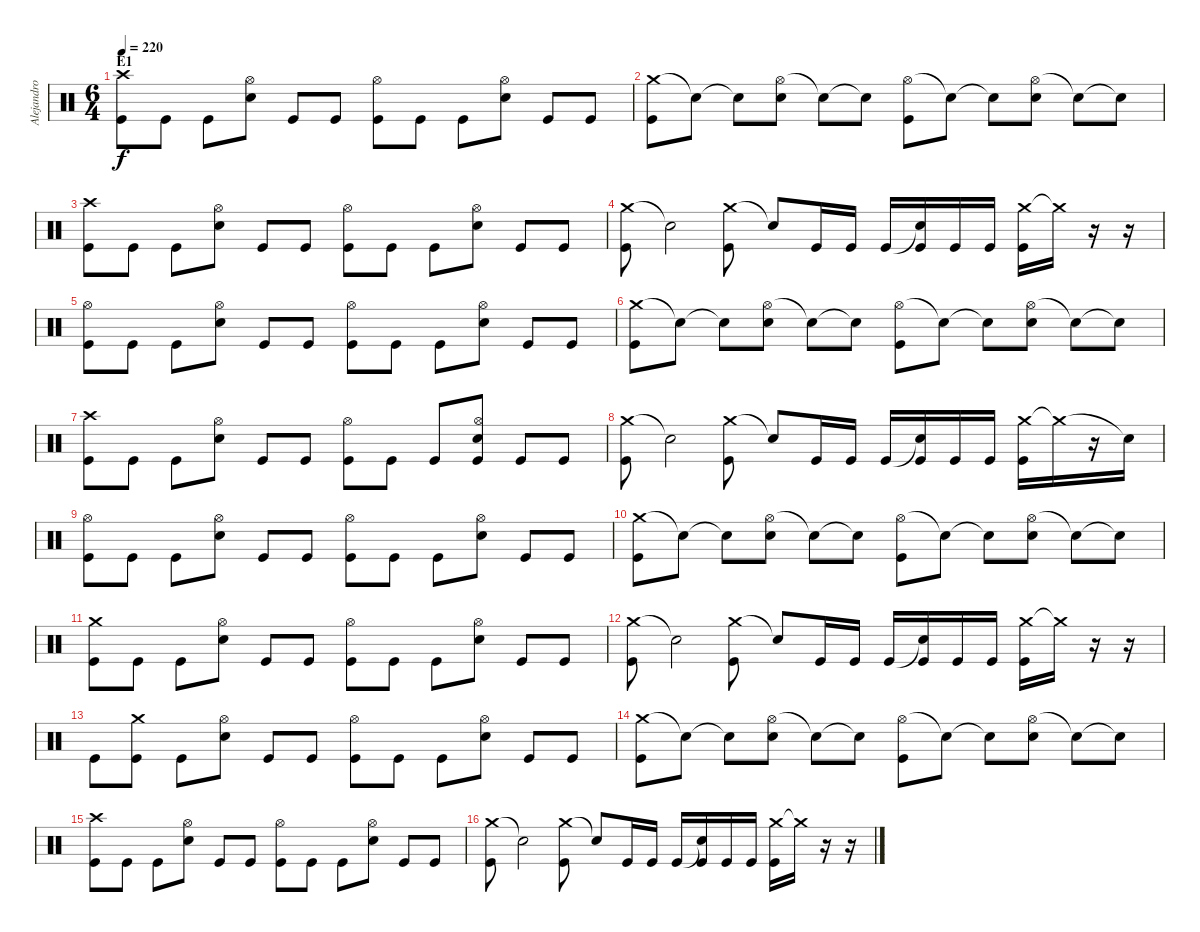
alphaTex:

\track ("Alejandro M. (Bateria)" "Alejandro ") {instrument percussion}
\staff {score}
\articulation defaults
\ts (6 4)
\section ("" "E1")
\tempo 220
\clef neutral
\ks c
("Crash high (hit)" "Kick (hit)").8{dy f} "Kick (hit)".8 "Kick (hit)".8 ("Hi-Hat (open)" "Snare (hit) 2").8 "Kick (hit)".8 "Kick (hit)".8 ("Hi-Hat (open)" "Kick (hit)").8 "Kick (hit)".8 "Kick (hit)".8 ("Hi-Hat (open)" "Snare (hit) 2").8 "Kick (hit)".8 "Kick (hit)".8 |
("Crash medium (hit)" "Kick (hit)").8 "Snare (hit)"{t}.8 "Snare (hit)"{t}.8 ("Hi-Hat (open)" "Snare (hit) 2").8 "Snare (hit)"{t}.8 "Snare (hit)"{t}.8 ("Hi-Hat (open)" "Kick (hit)").8 "Snare (hit)"{t}.8 "Snare (hit)"{t}.8 ("Hi-Hat (open)" "Snare (hit) 2").8 "Snare (hit)"{t}.8 "Snare (hit)"{t}.8 |
("Crash high (hit)" "Kick (hit)").8 "Kick (hit)".8 "Kick (hit)".8 ("Hi-Hat (open)" "Snare (hit) 2").8 "Kick (hit)".8 "Kick (hit)".8 ("Hi-Hat (open)" "Kick (hit)").8 "Kick (hit)".8 "Kick (hit)".8 ("Hi-Hat (open)" "Snare (hit) 2").8 "Kick (hit)".8 "Kick (hit)".8 |
("Crash medium (hit)" "Kick (hit)").8 "Snare (hit)"{t}.2 ("Crash medium (hit)" "Kick (hit)").8 "Snare (hit)"{t}.8 "Kick (hit)".16 "Kick (hit)".16 "Kick (hit)".16 ("Snare (hit)"{t} "Kick (hit)").16 "Kick (hit)".16 "Kick (hit)".16 ("Crash medium (hit)" "Kick (hit)").16 "Crash medium (hit)"{t}.16 r.16 r.16 |
("Hi-Hat (open)" "Kick (hit)").8 "Kick (hit)".8 "Kick (hit)".8 ("Hi-Hat (open)" "Snare (hit) 2").8 "Kick (hit)".8 "Kick (hit)".8 ("Hi-Hat (open)" "Kick (hit)").8 "Kick (hit)".8 "Kick (hit)".8 ("Hi-Hat (open)" "Snare (hit) 2").8 "Kick (hit)".8 "Kick (hit)".8 |
("Crash medium (hit)" "Kick (hit)").8 "Snare (hit)"{t}.8 "Snare (hit)"{t}.8 ("Hi-Hat (open)" "Snare (hit) 2").8 "Snare (hit)"{t}.8 "Snare (hit)"{t}.8 ("Hi-Hat (open)" "Kick (hit)").8 "Snare (hit)"{t}.8 "Snare (hit)"{t}.8 ("Hi-Hat (open)" "Snare (hit) 2").8 "Snare (hit)"{t}.8 "Snare (hit)"{t}.8 |
("Crash high (hit)" "Kick (hit)").8 "Kick (hit)".8 "Kick (hit)".8 ("Hi-Hat (open)" "Snare (hit) 2").8 "Kick (hit)".8 "Kick (hit)".8 ("Hi-Hat (open)" "Kick (hit)").8 "Kick (hit)".8 "Kick (hit)".8 ("Hi-Hat (open)" "Snare (hit) 2" "Kick (hit)").8 "Kick (hit)".8 "Kick (hit)".8 |
("Crash medium (hit)" "Kick (hit)").8 "Snare (hit)"{t}.2 ("Crash medium (hit)" "Kick (hit)").8 "Snare (hit)"{t}.8 "Kick (hit)".16 "Kick (hit)".16 "Kick (hit)".16 ("Snare (hit)"{t} "Kick (hit)").16 "Kick (hit)".16 "Kick (hit)".16 ("Crash medium (hit)" "Kick (hit)").16 "Crash medium (hit)"{t}.16 r.16 "Snare (hit)"{t}.16 |
("Hi-Hat (open)" "Kick (hit)").8 "Kick (hit)".8 "Kick (hit)".8 ("Hi-Hat (open)" "Snare (hit) 2").8 "Kick (hit)".8 "Kick (hit)".8 ("Hi-Hat (open)" "Kick (hit)").8 "Kick (hit)".8 "Kick (hit)".8 ("Hi-Hat (open)" "Snare (hit) 2").8 "Kick (hit)".8 "Kick (hit)".8 |
("Crash medium (hit)" "Kick (hit)").8 "Snare (hit)"{t}.8 "Snare (hit)"{t}.8 ("Hi-Hat (open)" "Snare (hit) 2").8 "Snare (hit)"{t}.8 "Snare (hit)"{t}.8 ("Hi-Hat (open)" "Kick (hit)").8 "Snare (hit)"{t}.8 "Snare (hit)"{t}.8 ("Hi-Hat (open)" "Snare (hit) 2").8 "Snare (hit)"{t}.8 "Snare (hit)"{t}.8 |
("Crash medium (hit)" "Kick (hit)").8 "Kick (hit)".8 "Kick (hit)".8 ("Hi-Hat (open)" "Snare (hit) 2").8 "Kick (hit)".8 "Kick (hit)".8 ("Hi-Hat (open)" "Kick (hit)").8 "Kick (hit)".8 "Kick (hit)".8 ("Hi-Hat (open)" "Snare (hit) 2").8 "Kick (hit)".8 "Kick (hit)".8 |
("Crash medium (hit)" "Kick (hit)").8 "Snare (hit)"{t}.2 ("Crash medium (hit)" "Kick (hit)").8 "Snare (hit)"{t}.8 "Kick (hit)".16 "Kick (hit)".16 "Kick (hit)".16 ("Snare (hit)"{t} "Kick (hit)").16 "Kick (hit)".16 "Kick (hit)".16 ("Crash medium (hit)" "Kick (hit)").16 "Crash medium (hit)"{t}.16 r.16 r.16 |
"Kick (hit)".8 ("Crash medium (hit)" "Kick (hit)").8 "Kick (hit)".8 ("Hi-Hat (open)" "Snare (hit) 2").8 "Kick (hit)".8 "Kick (hit)".8 ("Hi-Hat (open)" "Kick (hit)").8 "Kick (hit)".8 "Kick (hit)".8 ("Hi-Hat (open)" "Snare (hit) 2").8 "Kick (hit)".8 "Kick (hit)".8 |
("Crash medium (hit)" "Kick (hit)").8 "Snare (hit)"{t}.8 "Snare (hit)"{t}.8 ("Hi-Hat (open)" "Snare (hit) 2").8 "Snare (hit)"{t}.8 "Snare (hit)"{t}.8 ("Hi-Hat (open)" "Kick (hit)").8 "Snare (hit)"{t}.8 "Snare (hit)"{t}.8 ("Hi-Hat (open)" "Snare (hit) 2").8 "Snare (hit)"{t}.8 "Snare (hit)"{t}.8 |
("Crash high (hit)" "Kick (hit)").8 "Kick (hit)".8 "Kick (hit)".8 ("Hi-Hat (open)" "Snare (hit) 2").8 "Kick (hit)".8 "Kick (hit)".8 ("Hi-Hat (open)" "Kick (hit)").8 "Kick (hit)".8 "Kick (hit)".8 ("Hi-Hat (open)" "Snare (hit) 2").8 "Kick (hit)".8 "Kick (hit)".8 |
("Crash medium (hit)" "Kick (hit)").8 "Snare (hit)"{t}.2 ("Crash medium (hit)" "Kick (hit)").8 "Snare (hit)"{t}.8 "Kick (hit)".16 "Kick (hit)".16 "Kick (hit)".16 ("Snare (hit)"{t} "Kick (hit)").16 "Kick (hit)".16 "Kick (hit)".16 ("Crash medium (hit)" "Kick (hit)").16 "Crash medium (hit)"{t}.16 r.16 r.16
